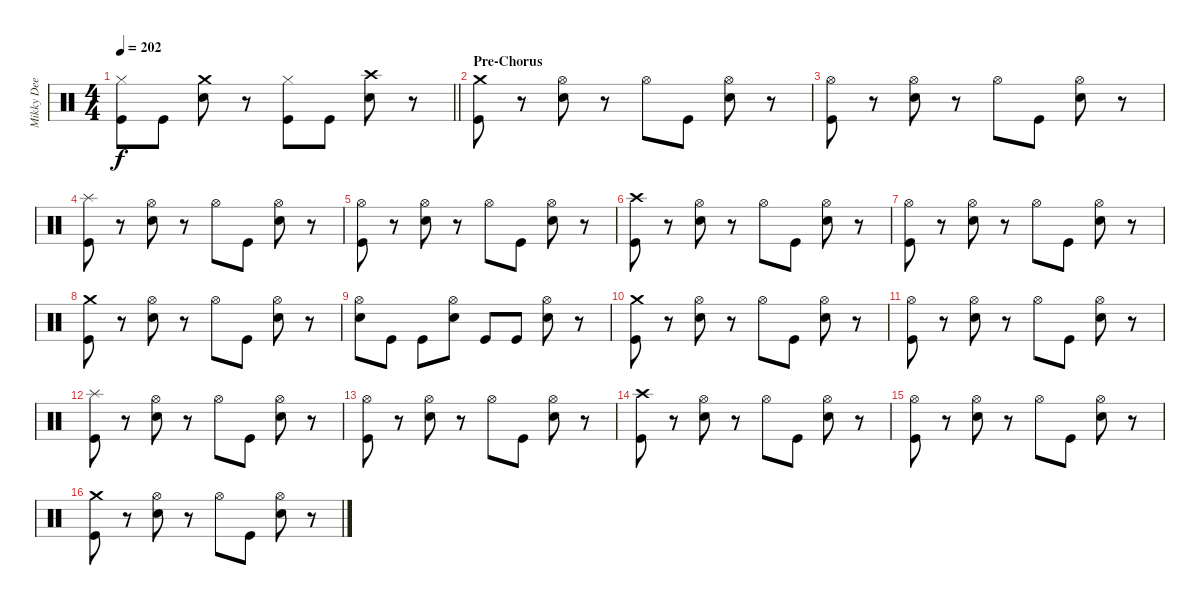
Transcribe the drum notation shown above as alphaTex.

\track ("Mikky Dee" "Mikky Dee") {instrument percussion}
\staff {score}
\articulation defaults
\ts (4 4)
\tempo 202
\clef neutral
\barLineRight lightlight
\ks c
("Hi-Hat (closed)" "Kick (hit)").8{dy f} "Kick (hit)".8 ("Crash medium (hit)" "Electric Snare (hit)").8 r.8 ("Hi-Hat (closed)" "Kick (hit)").8 "Kick (hit)".8 ("Crash high (hit)" "Electric Snare (hit)").8 r.8 |
\section ("" "Pre-Chorus")
("Crash medium (hit)" "Kick (hit)").8 r.8 ("Hi-Hat (open)" "Electric Snare (hit)").8 r.8 "Hi-Hat (open)".8 "Kick (hit)".8 ("Hi-Hat (open)" "Electric Snare (hit)").8 r.8 |
("Hi-Hat (open)" "Kick (hit)").8 r.8 ("Hi-Hat (open)" "Electric Snare (hit)").8 r.8 "Hi-Hat (open)".8 "Kick (hit)".8 ("Hi-Hat (open)" "Electric Snare (hit)").8 r.8 |
("Splash (hit)" "Kick (hit)").8 r.8 ("Hi-Hat (open)" "Electric Snare (hit)").8 r.8 "Hi-Hat (open)".8 "Kick (hit)".8 ("Hi-Hat (open)" "Electric Snare (hit)").8 r.8 |
("Hi-Hat (open)" "Kick (hit)").8 r.8 ("Hi-Hat (open)" "Electric Snare (hit)").8 r.8 "Hi-Hat (open)".8 "Kick (hit)".8 ("Hi-Hat (open)" "Electric Snare (hit)").8 r.8 |
("Crash high (hit)" "Kick (hit)").8 r.8 ("Hi-Hat (open)" "Electric Snare (hit)").8 r.8 "Hi-Hat (open)".8 "Kick (hit)".8 ("Hi-Hat (open)" "Electric Snare (hit)").8 r.8 |
("Hi-Hat (open)" "Kick (hit)").8 r.8 ("Hi-Hat (open)" "Electric Snare (hit)").8 r.8 "Hi-Hat (open)".8 "Kick (hit)".8 ("Hi-Hat (open)" "Electric Snare (hit)").8 r.8 |
("Crash medium (hit)" "Kick (hit)").8 r.8 ("Hi-Hat (open)" "Electric Snare (hit)").8 r.8 "Hi-Hat (open)".8 "Kick (hit)".8 ("Hi-Hat (open)" "Electric Snare (hit)").8 r.8 |
("Hi-Hat (open)" "Electric Snare (hit)").8 "Kick (hit)".8 "Kick (hit)".8 ("Hi-Hat (open)" "Electric Snare (hit)").8 "Kick (hit)".8 "Kick (hit)".8 ("Hi-Hat (open)" "Electric Snare (hit)").8 r.8 |
("Crash medium (hit)" "Kick (hit)").8 r.8 ("Hi-Hat (open)" "Electric Snare (hit)").8 r.8 "Hi-Hat (open)".8 "Kick (hit)".8 ("Hi-Hat (open)" "Electric Snare (hit)").8 r.8 |
("Hi-Hat (open)" "Kick (hit)").8 r.8 ("Hi-Hat (open)" "Electric Snare (hit)").8 r.8 "Hi-Hat (open)".8 "Kick (hit)".8 ("Hi-Hat (open)" "Electric Snare (hit)").8 r.8 |
("Splash (hit)" "Kick (hit)").8 r.8 ("Hi-Hat (open)" "Electric Snare (hit)").8 r.8 "Hi-Hat (open)".8 "Kick (hit)".8 ("Hi-Hat (open)" "Electric Snare (hit)").8 r.8 |
("Hi-Hat (open)" "Kick (hit)").8 r.8 ("Hi-Hat (open)" "Electric Snare (hit)").8 r.8 "Hi-Hat (open)".8 "Kick (hit)".8 ("Hi-Hat (open)" "Electric Snare (hit)").8 r.8 |
("Crash high (hit)" "Kick (hit)").8 r.8 ("Hi-Hat (open)" "Electric Snare (hit)").8 r.8 "Hi-Hat (open)".8 "Kick (hit)".8 ("Hi-Hat (open)" "Electric Snare (hit)").8 r.8 |
("Hi-Hat (open)" "Kick (hit)").8 r.8 ("Hi-Hat (open)" "Electric Snare (hit)").8 r.8 "Hi-Hat (open)".8 "Kick (hit)".8 ("Hi-Hat (open)" "Electric Snare (hit)").8 r.8 |
("Crash medium (hit)" "Kick (hit)").8 r.8 ("Hi-Hat (open)" "Electric Snare (hit)").8 r.8 "Hi-Hat (open)".8 "Kick (hit)".8 ("Hi-Hat (open)" "Electric Snare (hit)").8 r.8
